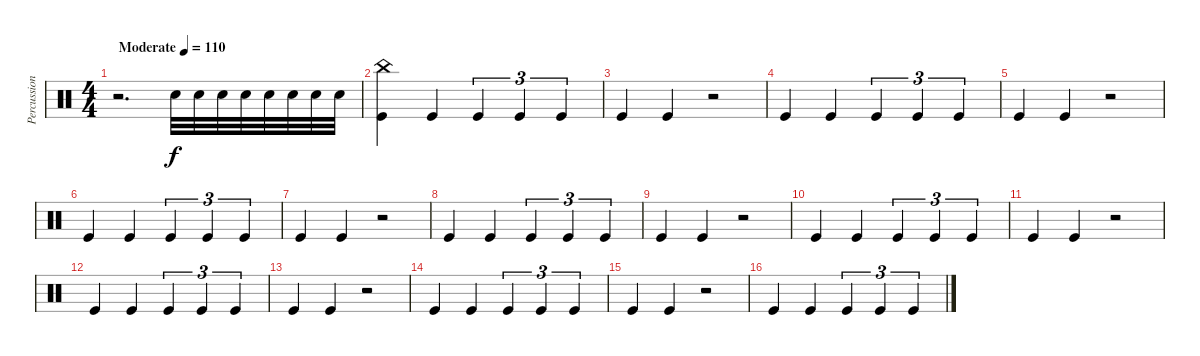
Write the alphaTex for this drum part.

\track ("Percussions" "Percussion") {instrument percussion}
\staff {score}
\articulation defaults
\ts (4 4)
\tempo (110 "Moderate")
\clef neutral
\ks c
r.2{d dy f} "Snare (hit) 2".32 "Snare (hit) 2".32 "Snare (hit) 2".32 "Snare (hit) 2".32 "Snare (hit) 2".32 "Snare (hit) 2".32 "Snare (hit) 2".32 "Snare (hit) 2".32 |
("China (hit)" "Kick (hit)").4 "Kick (hit)".4 "Kick (hit)".4{tu (3 2)} "Kick (hit)".4{tu (3 2)} "Kick (hit)".4{tu (3 2)} |
"Kick (hit)".4 "Kick (hit)".4 r.2 |
"Kick (hit)".4 "Kick (hit)".4 "Kick (hit)".4{tu (3 2)} "Kick (hit)".4{tu (3 2)} "Kick (hit)".4{tu (3 2)} |
"Kick (hit)".4 "Kick (hit)".4 r.2 |
"Kick (hit)".4 "Kick (hit)".4 "Kick (hit)".4{tu (3 2)} "Kick (hit)".4{tu (3 2)} "Kick (hit)".4{tu (3 2)} |
"Kick (hit)".4 "Kick (hit)".4 r.2 |
"Kick (hit)".4 "Kick (hit)".4 "Kick (hit)".4{tu (3 2)} "Kick (hit)".4{tu (3 2)} "Kick (hit)".4{tu (3 2)} |
"Kick (hit)".4 "Kick (hit)".4 r.2 |
"Kick (hit)".4 "Kick (hit)".4 "Kick (hit)".4{tu (3 2)} "Kick (hit)".4{tu (3 2)} "Kick (hit)".4{tu (3 2)} |
"Kick (hit)".4 "Kick (hit)".4 r.2 |
"Kick (hit)".4 "Kick (hit)".4 "Kick (hit)".4{tu (3 2)} "Kick (hit)".4{tu (3 2)} "Kick (hit)".4{tu (3 2)} |
"Kick (hit)".4 "Kick (hit)".4 r.2 |
"Kick (hit)".4 "Kick (hit)".4 "Kick (hit)".4{tu (3 2)} "Kick (hit)".4{tu (3 2)} "Kick (hit)".4{tu (3 2)} |
"Kick (hit)".4 "Kick (hit)".4 r.2 |
"Kick (hit)".4 "Kick (hit)".4 "Kick (hit)".4{tu (3 2)} "Kick (hit)".4{tu (3 2)} "Kick (hit)".4{tu (3 2)}
